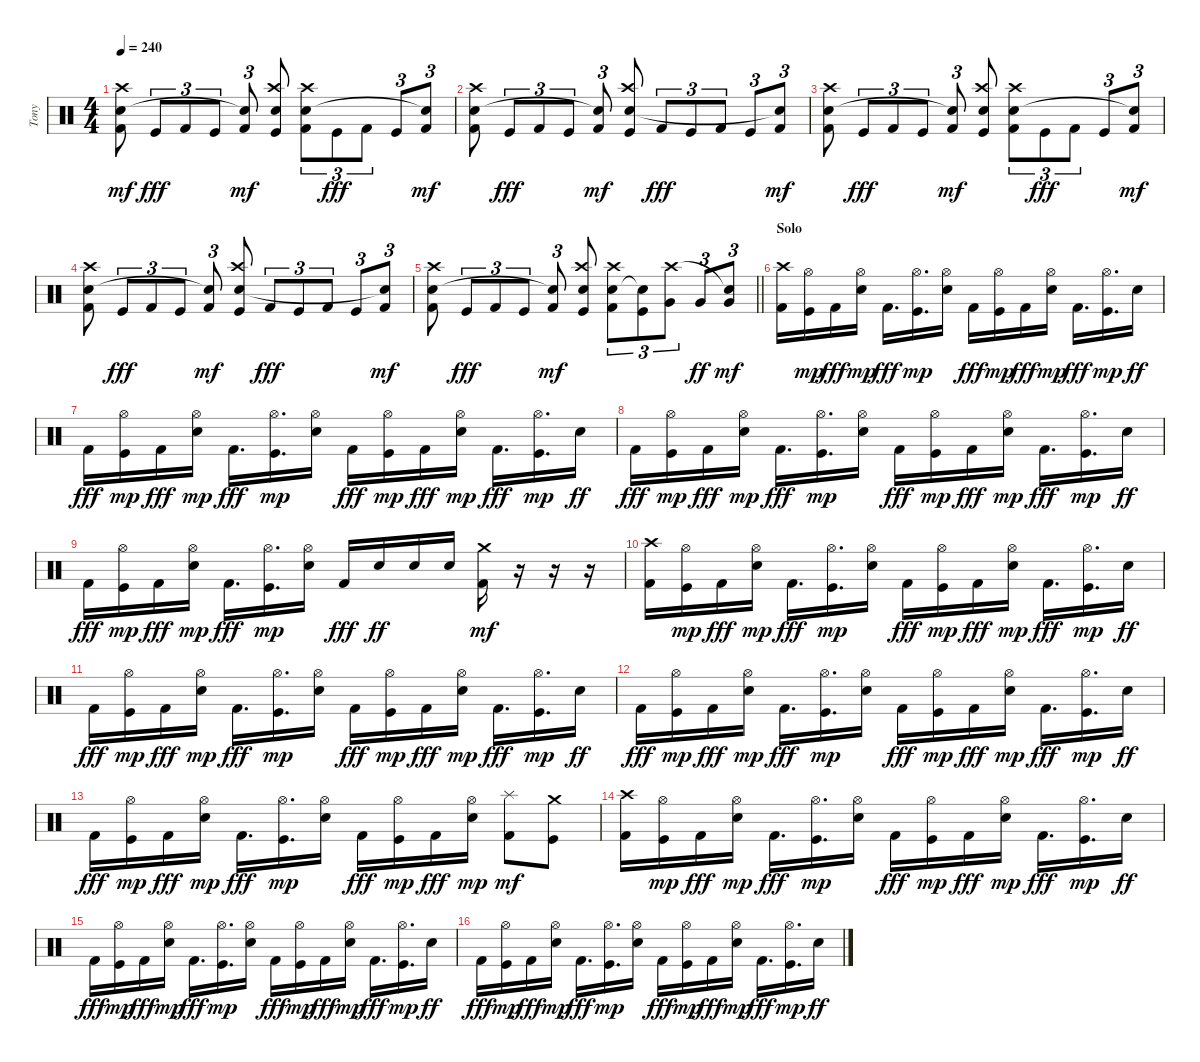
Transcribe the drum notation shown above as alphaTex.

\track ("Tony" "Tony") {instrument percussion}
\staff {score}
\articulation defaults
\ts (4 4)
\tempo 240
\clef neutral
\ks c
("Kick (hit) 2" "Snare (hit) 2" "Crash high (hit)").8{dy mf} "Kick (hit)".8{tu (3 2) dy fff} "Kick (hit) 2".8{tu (3 2)} "Kick (hit)".8{tu (3 2)} ("Kick (hit) 2" "Snare (hit)"{t}).8{tu (3 2) dy mf} ("Kick (hit)" "Snare (hit) 2" "Crash high (hit)").8 ("Kick (hit) 2" "Snare (hit) 2" "Crash high (hit)").8{tu (3 2)} "Kick (hit)".8{tu (3 2) dy fff} "Kick (hit) 2".8{tu (3 2)} "Kick (hit)".8{tu (3 2)} ("Kick (hit) 2" "Snare (hit)"{t}).8{tu (3 2) dy mf} |
("Kick (hit) 2" "Snare (hit) 2" "Crash high (hit)").8 "Kick (hit)".8{tu (3 2) dy fff} "Kick (hit) 2".8{tu (3 2)} "Kick (hit)".8{tu (3 2)} ("Kick (hit) 2" "Snare (hit)"{t}).8{tu (3 2) dy mf} ("Kick (hit)" "Snare (hit) 2" "Crash high (hit)").8 "Kick (hit) 2".8{tu (3 2) dy fff} "Kick (hit)".8{tu (3 2)} "Kick (hit) 2".8{tu (3 2)} "Kick (hit)".8{tu (3 2)} ("Kick (hit) 2" "Snare (hit)"{t}).8{tu (3 2) dy mf} |
("Kick (hit) 2" "Snare (hit) 2" "Crash high (hit)").8 "Kick (hit)".8{tu (3 2) dy fff} "Kick (hit) 2".8{tu (3 2)} "Kick (hit)".8{tu (3 2)} ("Kick (hit) 2" "Snare (hit)"{t}).8{tu (3 2) dy mf} ("Kick (hit)" "Snare (hit) 2" "Crash high (hit)").8 ("Kick (hit) 2" "Snare (hit) 2" "Crash high (hit)").8{tu (3 2)} "Kick (hit)".8{tu (3 2) dy fff} "Kick (hit) 2".8{tu (3 2)} "Kick (hit)".8{tu (3 2)} ("Kick (hit) 2" "Snare (hit)"{t}).8{tu (3 2) dy mf} |
("Kick (hit) 2" "Snare (hit) 2" "Crash high (hit)").8 "Kick (hit)".8{tu (3 2) dy fff} "Kick (hit) 2".8{tu (3 2)} "Kick (hit)".8{tu (3 2)} ("Kick (hit) 2" "Snare (hit)"{t}).8{tu (3 2) dy mf} ("Kick (hit)" "Snare (hit) 2" "Crash high (hit)").8 "Kick (hit) 2".8{tu (3 2) dy fff} "Kick (hit)".8{tu (3 2)} "Kick (hit) 2".8{tu (3 2)} "Kick (hit)".8{tu (3 2)} ("Kick (hit) 2" "Snare (hit)"{t}).8{tu (3 2) dy mf} |
\barLineRight lightlight
("Kick (hit) 2" "Snare (hit) 2" "Crash high (hit)").8 "Kick (hit)".8{tu (3 2) dy fff} "Kick (hit) 2".8{tu (3 2)} "Kick (hit)".8{tu (3 2)} ("Kick (hit) 2" "Snare (hit)"{t}).8{tu (3 2) dy mf} ("Kick (hit)" "Snare (hit) 2" "Crash high (hit)").8 ("Kick (hit) 2" "Snare (hit) 2" "Crash high (hit)").8{tu (3 2)} ("Kick (hit)" "Snare (hit)"{t}).8{tu (3 2)} ("Very Low Tom (hit)" "Crash high (hit)").8{tu (3 2)} "Very Low Tom (hit)".8{tu (3 2) dy ff} ("Very Low Tom (hit)" "Snare (hit)"{t}).8{tu (3 2) dy mf} |
\section ("" "Solo")
("Kick (hit) 2" "Crash high (hit)").16 ("Kick (hit)" "Hi-Hat (open)").16{dy mp} "Kick (hit) 2".16{dy fff} ("Snare (hit) 2" "Hi-Hat (open)").16{dy mp} "Kick (hit) 2".16{d dy fff} ("Kick (hit)" "Hi-Hat (open)").16{d dy mp} ("Snare (hit) 2" "Hi-Hat (open)").16 "Kick (hit) 2".16{dy fff} ("Kick (hit)" "Hi-Hat (open)").16{dy mp} "Kick (hit) 2".16{dy fff} ("Snare (hit) 2" "Hi-Hat (open)").16{dy mp} "Kick (hit) 2".16{d dy fff} ("Kick (hit)" "Hi-Hat (open)").16{d dy mp} "Snare (hit) 2".16{dy ff} |
"Kick (hit) 2".16{dy fff} ("Kick (hit)" "Hi-Hat (open)").16{dy mp} "Kick (hit) 2".16{dy fff} ("Snare (hit) 2" "Hi-Hat (open)").16{dy mp} "Kick (hit) 2".16{d dy fff} ("Kick (hit)" "Hi-Hat (open)").16{d dy mp} ("Snare (hit) 2" "Hi-Hat (open)").16 "Kick (hit) 2".16{dy fff} ("Kick (hit)" "Hi-Hat (open)").16{dy mp} "Kick (hit) 2".16{dy fff} ("Snare (hit) 2" "Hi-Hat (open)").16{dy mp} "Kick (hit) 2".16{d dy fff} ("Kick (hit)" "Hi-Hat (open)").16{d dy mp} "Snare (hit) 2".16{dy ff} |
"Kick (hit) 2".16{dy fff} ("Kick (hit)" "Hi-Hat (open)").16{dy mp} "Kick (hit) 2".16{dy fff} ("Snare (hit) 2" "Hi-Hat (open)").16{dy mp} "Kick (hit) 2".16{d dy fff} ("Kick (hit)" "Hi-Hat (open)").16{d dy mp} ("Snare (hit) 2" "Hi-Hat (open)").16 "Kick (hit) 2".16{dy fff} ("Kick (hit)" "Hi-Hat (open)").16{dy mp} "Kick (hit) 2".16{dy fff} ("Snare (hit) 2" "Hi-Hat (open)").16{dy mp} "Kick (hit) 2".16{d dy fff} ("Kick (hit)" "Hi-Hat (open)").16{d dy mp} "Snare (hit) 2".16{dy ff} |
"Kick (hit) 2".16{dy fff} ("Kick (hit)" "Hi-Hat (open)").16{dy mp} "Kick (hit) 2".16{dy fff} ("Snare (hit) 2" "Hi-Hat (open)").16{dy mp} "Kick (hit) 2".16{d dy fff} ("Kick (hit)" "Hi-Hat (open)").16{d dy mp} ("Snare (hit) 2" "Hi-Hat (open)").16 "Kick (hit) 2".16{dy fff} "Snare (hit) 2".16{dy ff} "Snare (hit) 2".16 "Snare (hit) 2".16 ("Kick (hit) 2" "Crash medium (hit)").16{dy mf} r.16 r.16 r.16 |
("Kick (hit) 2" "Crash high (hit)").16 ("Kick (hit)" "Hi-Hat (open)").16{dy mp} "Kick (hit) 2".16{dy fff} ("Snare (hit) 2" "Hi-Hat (open)").16{dy mp} "Kick (hit) 2".16{d dy fff} ("Kick (hit)" "Hi-Hat (open)").16{d dy mp} ("Snare (hit) 2" "Hi-Hat (open)").16 "Kick (hit) 2".16{dy fff} ("Kick (hit)" "Hi-Hat (open)").16{dy mp} "Kick (hit) 2".16{dy fff} ("Snare (hit) 2" "Hi-Hat (open)").16{dy mp} "Kick (hit) 2".16{d dy fff} ("Kick (hit)" "Hi-Hat (open)").16{d dy mp} "Snare (hit) 2".16{dy ff} |
"Kick (hit) 2".16{dy fff} ("Kick (hit)" "Hi-Hat (open)").16{dy mp} "Kick (hit) 2".16{dy fff} ("Snare (hit) 2" "Hi-Hat (open)").16{dy mp} "Kick (hit) 2".16{d dy fff} ("Kick (hit)" "Hi-Hat (open)").16{d dy mp} ("Snare (hit) 2" "Hi-Hat (open)").16 "Kick (hit) 2".16{dy fff} ("Kick (hit)" "Hi-Hat (open)").16{dy mp} "Kick (hit) 2".16{dy fff} ("Snare (hit) 2" "Hi-Hat (open)").16{dy mp} "Kick (hit) 2".16{d dy fff} ("Kick (hit)" "Hi-Hat (open)").16{d dy mp} "Snare (hit) 2".16{dy ff} |
"Kick (hit) 2".16{dy fff} ("Kick (hit)" "Hi-Hat (open)").16{dy mp} "Kick (hit) 2".16{dy fff} ("Snare (hit) 2" "Hi-Hat (open)").16{dy mp} "Kick (hit) 2".16{d dy fff} ("Kick (hit)" "Hi-Hat (open)").16{d dy mp} ("Snare (hit) 2" "Hi-Hat (open)").16 "Kick (hit) 2".16{dy fff} ("Kick (hit)" "Hi-Hat (open)").16{dy mp} "Kick (hit) 2".16{dy fff} ("Snare (hit) 2" "Hi-Hat (open)").16{dy mp} "Kick (hit) 2".16{d dy fff} ("Kick (hit)" "Hi-Hat (open)").16{d dy mp} "Snare (hit) 2".16{dy ff} |
"Kick (hit) 2".16{dy fff} ("Kick (hit)" "Hi-Hat (open)").16{dy mp} "Kick (hit) 2".16{dy fff} ("Snare (hit) 2" "Hi-Hat (open)").16{dy mp} "Kick (hit) 2".16{d dy fff} ("Kick (hit)" "Hi-Hat (open)").16{d dy mp} ("Snare (hit) 2" "Hi-Hat (open)").16 "Kick (hit) 2".16{dy fff} ("Kick (hit)" "Hi-Hat (open)").16{dy mp} "Kick (hit) 2".16{dy fff} ("Snare (hit) 2" "Hi-Hat (open)").16{dy mp} ("Kick (hit) 2" "Splash (hit)").8{dy mf} ("Kick (hit)" "Crash medium (hit)").8 |
("Kick (hit) 2" "Crash high (hit)").16 ("Kick (hit)" "Hi-Hat (open)").16{dy mp} "Kick (hit) 2".16{dy fff} ("Snare (hit) 2" "Hi-Hat (open)").16{dy mp} "Kick (hit) 2".16{d dy fff} ("Kick (hit)" "Hi-Hat (open)").16{d dy mp} ("Snare (hit) 2" "Hi-Hat (open)").16 "Kick (hit) 2".16{dy fff} ("Kick (hit)" "Hi-Hat (open)").16{dy mp} "Kick (hit) 2".16{dy fff} ("Snare (hit) 2" "Hi-Hat (open)").16{dy mp} "Kick (hit) 2".16{d dy fff} ("Kick (hit)" "Hi-Hat (open)").16{d dy mp} "Snare (hit) 2".16{dy ff} |
"Kick (hit) 2".16{dy fff} ("Kick (hit)" "Hi-Hat (open)").16{dy mp} "Kick (hit) 2".16{dy fff} ("Snare (hit) 2" "Hi-Hat (open)").16{dy mp} "Kick (hit) 2".16{d dy fff} ("Kick (hit)" "Hi-Hat (open)").16{d dy mp} ("Snare (hit) 2" "Hi-Hat (open)").16 "Kick (hit) 2".16{dy fff} ("Kick (hit)" "Hi-Hat (open)").16{dy mp} "Kick (hit) 2".16{dy fff} ("Snare (hit) 2" "Hi-Hat (open)").16{dy mp} "Kick (hit) 2".16{d dy fff} ("Kick (hit)" "Hi-Hat (open)").16{d dy mp} "Snare (hit) 2".16{dy ff} |
"Kick (hit) 2".16{dy fff} ("Kick (hit)" "Hi-Hat (open)").16{dy mp} "Kick (hit) 2".16{dy fff} ("Snare (hit) 2" "Hi-Hat (open)").16{dy mp} "Kick (hit) 2".16{d dy fff} ("Kick (hit)" "Hi-Hat (open)").16{d dy mp} ("Snare (hit) 2" "Hi-Hat (open)").16 "Kick (hit) 2".16{dy fff} ("Kick (hit)" "Hi-Hat (open)").16{dy mp} "Kick (hit) 2".16{dy fff} ("Snare (hit) 2" "Hi-Hat (open)").16{dy mp} "Kick (hit) 2".16{d dy fff} ("Kick (hit)" "Hi-Hat (open)").16{d dy mp} "Snare (hit) 2".16{dy ff}
